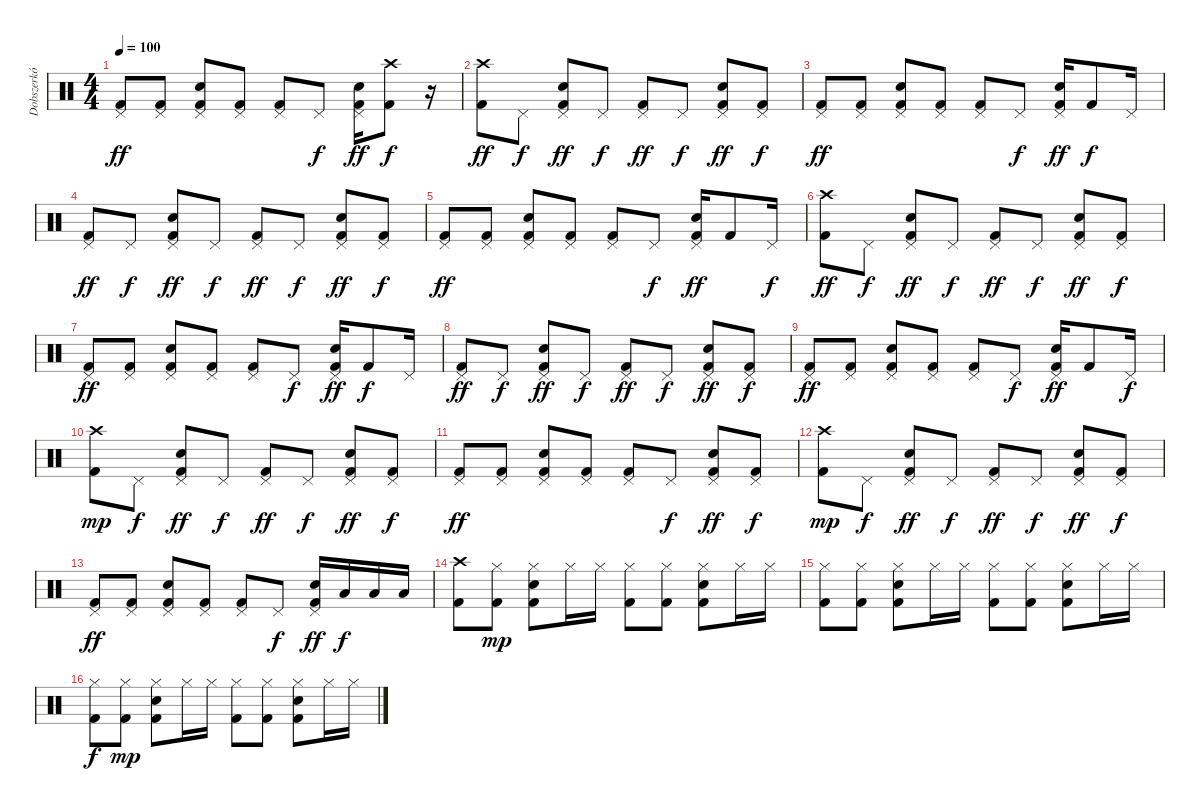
\track ("Dobszerkó" "Dobszerkó") {instrument percussion}
\staff {score}
\articulation defaults
\ts (4 4)
\tempo 100
\clef neutral
\ks c
("Kick (hit) 2" "Pedal Hi-Hat (hit)").8{dy ff} ("Kick (hit) 2" "Pedal Hi-Hat (hit)").8 ("Electric Snare (hit)" "Kick (hit) 2" "Pedal Hi-Hat (hit)").8 ("Kick (hit) 2" "Pedal Hi-Hat (hit)").8 ("Kick (hit) 2" "Pedal Hi-Hat (hit)").8 "Pedal Hi-Hat (hit)".8{dy f} ("Electric Snare (hit)" "Kick (hit) 2" "Pedal Hi-Hat (hit)").16{dy ff} ("Kick (hit) 2" "Crash high (hit)").8{dy f} r.16 |
("Kick (hit) 2" "Crash high (hit)").8{dy ff} "Pedal Hi-Hat (hit)".8{dy f} ("Electric Snare (hit)" "Kick (hit) 2" "Pedal Hi-Hat (hit)").8{dy ff} "Pedal Hi-Hat (hit)".8{dy f} ("Kick (hit) 2" "Pedal Hi-Hat (hit)").8{dy ff} "Pedal Hi-Hat (hit)".8{dy f} ("Electric Snare (hit)" "Kick (hit) 2" "Pedal Hi-Hat (hit)").8{dy ff} ("Kick (hit) 2" "Pedal Hi-Hat (hit)").8{dy f} |
("Kick (hit) 2" "Pedal Hi-Hat (hit)").8{dy ff} ("Kick (hit) 2" "Pedal Hi-Hat (hit)").8 ("Electric Snare (hit)" "Kick (hit) 2" "Pedal Hi-Hat (hit)").8 ("Kick (hit) 2" "Pedal Hi-Hat (hit)").8 ("Kick (hit) 2" "Pedal Hi-Hat (hit)").8 "Pedal Hi-Hat (hit)".8{dy f} ("Electric Snare (hit)" "Kick (hit) 2" "Pedal Hi-Hat (hit)").16{dy ff} "Kick (hit) 2".8{dy f} "Pedal Hi-Hat (hit)".16 |
("Kick (hit) 2" "Pedal Hi-Hat (hit)").8{dy ff} "Pedal Hi-Hat (hit)".8{dy f} ("Electric Snare (hit)" "Kick (hit) 2" "Pedal Hi-Hat (hit)").8{dy ff} "Pedal Hi-Hat (hit)".8{dy f} ("Kick (hit) 2" "Pedal Hi-Hat (hit)").8{dy ff} "Pedal Hi-Hat (hit)".8{dy f} ("Electric Snare (hit)" "Kick (hit) 2" "Pedal Hi-Hat (hit)").8{dy ff} ("Kick (hit) 2" "Pedal Hi-Hat (hit)").8{dy f} |
("Kick (hit) 2" "Pedal Hi-Hat (hit)").8{dy ff} ("Kick (hit) 2" "Pedal Hi-Hat (hit)").8 ("Electric Snare (hit)" "Kick (hit) 2" "Pedal Hi-Hat (hit)").8 ("Kick (hit) 2" "Pedal Hi-Hat (hit)").8 ("Kick (hit) 2" "Pedal Hi-Hat (hit)").8 "Pedal Hi-Hat (hit)".8{dy f} ("Electric Snare (hit)" "Kick (hit) 2" "Pedal Hi-Hat (hit)").16{dy ff} "Kick (hit) 2".8 "Pedal Hi-Hat (hit)".16{dy f} |
("Kick (hit) 2" "Crash high (hit)").8{dy ff} "Pedal Hi-Hat (hit)".8{dy f} ("Electric Snare (hit)" "Kick (hit) 2" "Pedal Hi-Hat (hit)").8{dy ff} "Pedal Hi-Hat (hit)".8{dy f} ("Kick (hit) 2" "Pedal Hi-Hat (hit)").8{dy ff} "Pedal Hi-Hat (hit)".8{dy f} ("Electric Snare (hit)" "Kick (hit) 2" "Pedal Hi-Hat (hit)").8{dy ff} ("Kick (hit) 2" "Pedal Hi-Hat (hit)").8{dy f} |
("Kick (hit) 2" "Pedal Hi-Hat (hit)").8{dy ff} ("Kick (hit) 2" "Pedal Hi-Hat (hit)").8 ("Electric Snare (hit)" "Kick (hit) 2" "Pedal Hi-Hat (hit)").8 ("Kick (hit) 2" "Pedal Hi-Hat (hit)").8 ("Kick (hit) 2" "Pedal Hi-Hat (hit)").8 "Pedal Hi-Hat (hit)".8{dy f} ("Electric Snare (hit)" "Kick (hit) 2" "Pedal Hi-Hat (hit)").16{dy ff} "Kick (hit) 2".8{dy f} "Pedal Hi-Hat (hit)".16 |
("Kick (hit) 2" "Pedal Hi-Hat (hit)").8{dy ff} "Pedal Hi-Hat (hit)".8{dy f} ("Electric Snare (hit)" "Kick (hit) 2" "Pedal Hi-Hat (hit)").8{dy ff} "Pedal Hi-Hat (hit)".8{dy f} ("Kick (hit) 2" "Pedal Hi-Hat (hit)").8{dy ff} "Pedal Hi-Hat (hit)".8{dy f} ("Electric Snare (hit)" "Kick (hit) 2" "Pedal Hi-Hat (hit)").8{dy ff} ("Kick (hit) 2" "Pedal Hi-Hat (hit)").8{dy f} |
("Kick (hit) 2" "Pedal Hi-Hat (hit)").8{dy ff} ("Kick (hit) 2" "Pedal Hi-Hat (hit)").8 ("Electric Snare (hit)" "Kick (hit) 2" "Pedal Hi-Hat (hit)").8 ("Kick (hit) 2" "Pedal Hi-Hat (hit)").8 ("Kick (hit) 2" "Pedal Hi-Hat (hit)").8 "Pedal Hi-Hat (hit)".8{dy f} ("Electric Snare (hit)" "Kick (hit) 2" "Pedal Hi-Hat (hit)").16{dy ff} "Kick (hit) 2".8 "Pedal Hi-Hat (hit)".16{dy f} |
("Kick (hit) 2" "Crash high (hit)").8{dy mp} "Pedal Hi-Hat (hit)".8{dy f} ("Electric Snare (hit)" "Kick (hit) 2" "Pedal Hi-Hat (hit)").8{dy ff} "Pedal Hi-Hat (hit)".8{dy f} ("Kick (hit) 2" "Pedal Hi-Hat (hit)").8{dy ff} "Pedal Hi-Hat (hit)".8{dy f} ("Electric Snare (hit)" "Kick (hit) 2" "Pedal Hi-Hat (hit)").8{dy ff} ("Kick (hit) 2" "Pedal Hi-Hat (hit)").8{dy f} |
("Kick (hit) 2" "Pedal Hi-Hat (hit)").8{dy ff} ("Kick (hit) 2" "Pedal Hi-Hat (hit)").8 ("Electric Snare (hit)" "Kick (hit) 2" "Pedal Hi-Hat (hit)").8 ("Kick (hit) 2" "Pedal Hi-Hat (hit)").8 ("Kick (hit) 2" "Pedal Hi-Hat (hit)").8 "Pedal Hi-Hat (hit)".8{dy f} ("Electric Snare (hit)" "Kick (hit) 2" "Pedal Hi-Hat (hit)").8{dy ff} ("Kick (hit) 2" "Pedal Hi-Hat (hit)").8{dy f} |
("Kick (hit) 2" "Crash high (hit)").8{dy mp} "Pedal Hi-Hat (hit)".8{dy f} ("Electric Snare (hit)" "Kick (hit) 2" "Pedal Hi-Hat (hit)").8{dy ff} "Pedal Hi-Hat (hit)".8{dy f} ("Kick (hit) 2" "Pedal Hi-Hat (hit)").8{dy ff} "Pedal Hi-Hat (hit)".8{dy f} ("Electric Snare (hit)" "Kick (hit) 2" "Pedal Hi-Hat (hit)").8{dy ff} ("Kick (hit) 2" "Pedal Hi-Hat (hit)").8{dy f} |
("Kick (hit) 2" "Pedal Hi-Hat (hit)").8{dy ff} ("Kick (hit) 2" "Pedal Hi-Hat (hit)").8 ("Electric Snare (hit)" "Kick (hit) 2" "Pedal Hi-Hat (hit)").8 ("Kick (hit) 2" "Pedal Hi-Hat (hit)").8 ("Kick (hit) 2" "Pedal Hi-Hat (hit)").8 "Pedal Hi-Hat (hit)".8{dy f} ("Electric Snare (hit)" "Kick (hit) 2" "Pedal Hi-Hat (hit)").16{dy ff} "Low Tom (hit)".16{dy f} "Low Tom (hit)".16 "Low Tom (hit)".16 |
("Kick (hit) 2" "Crash high (hit)").8 ("Kick (hit) 2" "Hi-Hat (closed)").8{dy mp} ("Electric Snare (hit)" "Kick (hit) 2" "Hi-Hat (closed)").8 "Hi-Hat (closed)".16 "Hi-Hat (closed)".16 ("Kick (hit) 2" "Hi-Hat (closed)").8 ("Kick (hit) 2" "Hi-Hat (closed)").8 ("Electric Snare (hit)" "Kick (hit) 2" "Hi-Hat (closed)").8 "Hi-Hat (closed)".16 "Hi-Hat (closed)".16 |
("Kick (hit) 2" "Hi-Hat (closed)").8 ("Kick (hit) 2" "Hi-Hat (closed)").8 ("Electric Snare (hit)" "Kick (hit) 2" "Hi-Hat (closed)").8 "Hi-Hat (closed)".16 "Hi-Hat (closed)".16 ("Kick (hit) 2" "Hi-Hat (closed)").8 ("Kick (hit) 2" "Hi-Hat (closed)").8 ("Electric Snare (hit)" "Kick (hit) 2" "Hi-Hat (closed)").8 "Hi-Hat (closed)".16 "Hi-Hat (closed)".16 |
("Kick (hit) 2" "Hi-Hat (closed)").8{dy f} ("Kick (hit) 2" "Hi-Hat (closed)").8{dy mp} ("Electric Snare (hit)" "Kick (hit) 2" "Hi-Hat (closed)").8 "Hi-Hat (closed)".16 "Hi-Hat (closed)".16 ("Kick (hit) 2" "Hi-Hat (closed)").8 ("Kick (hit) 2" "Hi-Hat (closed)").8 ("Electric Snare (hit)" "Kick (hit) 2" "Hi-Hat (closed)").8 "Hi-Hat (closed)".16 "Hi-Hat (closed)".16
